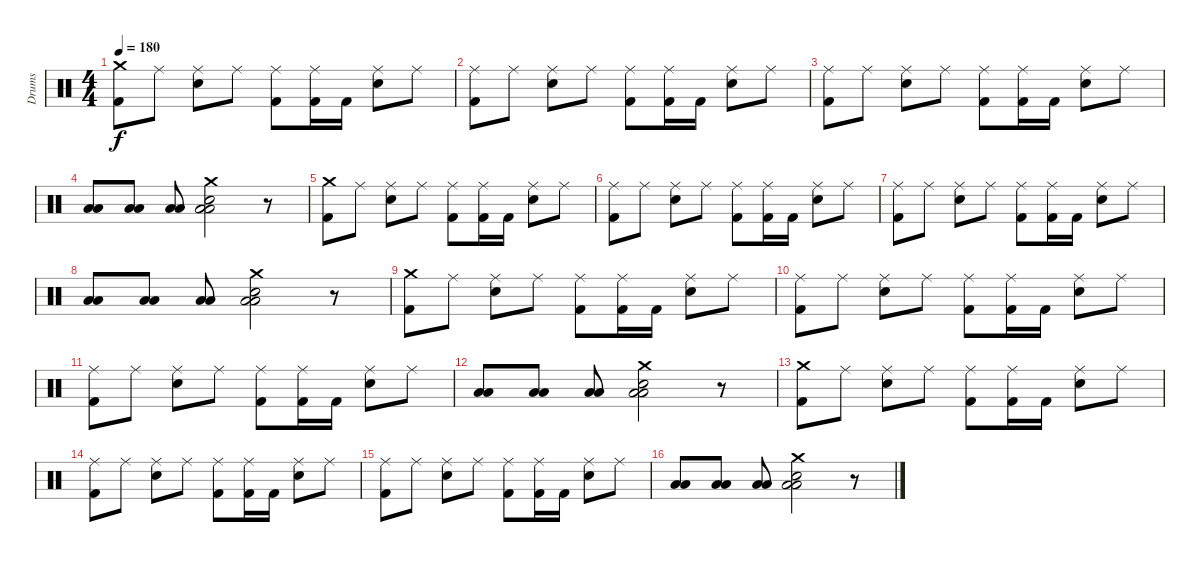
\track ("Drums" "Drums") {instrument percussion}
\staff {score}
\articulation defaults
\ts (4 4)
\tempo 180
\clef neutral
\ks c
("Crash medium (hit)" "Kick (hit) 2").8{dy f} "Ride (middle)".8 ("Ride (middle)" "Electric Snare (hit)").8 "Ride (middle)".8 ("Ride (middle)" "Kick (hit) 2").8 ("Ride (middle)" "Kick (hit) 2").16 "Kick (hit) 2".16 ("Ride (middle)" "Electric Snare (hit)").8 "Ride (middle)".8 |
("Ride (middle)" "Kick (hit) 2").8 "Ride (middle)".8 ("Ride (middle)" "Electric Snare (hit)").8 "Ride (middle)".8 ("Ride (middle)" "Kick (hit) 2").8 ("Ride (middle)" "Kick (hit) 2").16 "Kick (hit) 2".16 ("Ride (middle)" "Electric Snare (hit)").8 "Ride (middle)".8 |
("Ride (middle)" "Kick (hit) 2").8 "Ride (middle)".8 ("Ride (middle)" "Electric Snare (hit)").8 "Ride (middle)".8 ("Ride (middle)" "Kick (hit) 2").8 ("Ride (middle)" "Kick (hit) 2").16 "Kick (hit) 2".16 ("Ride (middle)" "Electric Snare (hit)").8 "Ride (middle)".8 |
("Low Tom (hit)" "Low Tom (hit)").8 ("Low Tom (hit)" "Low Tom (hit)").8 ("Low Tom (hit)" "Low Tom (hit)").8 ("Crash medium (hit)" "Electric Snare (hit)" "Low Tom (hit)" "Low Tom (hit)").2 r.8 |
("Crash medium (hit)" "Kick (hit) 2").8 "Ride (middle)".8 ("Ride (middle)" "Electric Snare (hit)").8 "Ride (middle)".8 ("Ride (middle)" "Kick (hit) 2").8 ("Ride (middle)" "Kick (hit) 2").16 "Kick (hit) 2".16 ("Ride (middle)" "Electric Snare (hit)").8 "Ride (middle)".8 |
("Ride (middle)" "Kick (hit) 2").8 "Ride (middle)".8 ("Ride (middle)" "Electric Snare (hit)").8 "Ride (middle)".8 ("Ride (middle)" "Kick (hit) 2").8 ("Ride (middle)" "Kick (hit) 2").16 "Kick (hit) 2".16 ("Ride (middle)" "Electric Snare (hit)").8 "Ride (middle)".8 |
("Ride (middle)" "Kick (hit) 2").8 "Ride (middle)".8 ("Ride (middle)" "Electric Snare (hit)").8 "Ride (middle)".8 ("Ride (middle)" "Kick (hit) 2").8 ("Ride (middle)" "Kick (hit) 2").16 "Kick (hit) 2".16 ("Ride (middle)" "Electric Snare (hit)").8 "Ride (middle)".8 |
("Low Tom (hit)" "Low Tom (hit)").8 ("Low Tom (hit)" "Low Tom (hit)").8 ("Low Tom (hit)" "Low Tom (hit)").8 ("Crash medium (hit)" "Electric Snare (hit)" "Low Tom (hit)" "Low Tom (hit)").2 r.8 |
("Crash medium (hit)" "Kick (hit) 2").8 "Ride (middle)".8 ("Ride (middle)" "Electric Snare (hit)").8 "Ride (middle)".8 ("Ride (middle)" "Kick (hit) 2").8 ("Ride (middle)" "Kick (hit) 2").16 "Kick (hit) 2".16 ("Ride (middle)" "Electric Snare (hit)").8 "Ride (middle)".8 |
("Ride (middle)" "Kick (hit) 2").8 "Ride (middle)".8 ("Ride (middle)" "Electric Snare (hit)").8 "Ride (middle)".8 ("Ride (middle)" "Kick (hit) 2").8 ("Ride (middle)" "Kick (hit) 2").16 "Kick (hit) 2".16 ("Ride (middle)" "Electric Snare (hit)").8 "Ride (middle)".8 |
("Ride (middle)" "Kick (hit) 2").8 "Ride (middle)".8 ("Ride (middle)" "Electric Snare (hit)").8 "Ride (middle)".8 ("Ride (middle)" "Kick (hit) 2").8 ("Ride (middle)" "Kick (hit) 2").16 "Kick (hit) 2".16 ("Ride (middle)" "Electric Snare (hit)").8 "Ride (middle)".8 |
("Low Tom (hit)" "Low Tom (hit)").8 ("Low Tom (hit)" "Low Tom (hit)").8 ("Low Tom (hit)" "Low Tom (hit)").8 ("Crash medium (hit)" "Electric Snare (hit)" "Low Tom (hit)" "Low Tom (hit)").2 r.8 |
("Crash medium (hit)" "Kick (hit) 2").8 "Ride (middle)".8 ("Ride (middle)" "Electric Snare (hit)").8 "Ride (middle)".8 ("Ride (middle)" "Kick (hit) 2").8 ("Ride (middle)" "Kick (hit) 2").16 "Kick (hit) 2".16 ("Ride (middle)" "Electric Snare (hit)").8 "Ride (middle)".8 |
("Ride (middle)" "Kick (hit) 2").8 "Ride (middle)".8 ("Ride (middle)" "Electric Snare (hit)").8 "Ride (middle)".8 ("Ride (middle)" "Kick (hit) 2").8 ("Ride (middle)" "Kick (hit) 2").16 "Kick (hit) 2".16 ("Ride (middle)" "Electric Snare (hit)").8 "Ride (middle)".8 |
("Ride (middle)" "Kick (hit) 2").8 "Ride (middle)".8 ("Ride (middle)" "Electric Snare (hit)").8 "Ride (middle)".8 ("Ride (middle)" "Kick (hit) 2").8 ("Ride (middle)" "Kick (hit) 2").16 "Kick (hit) 2".16 ("Ride (middle)" "Electric Snare (hit)").8 "Ride (middle)".8 |
("Low Tom (hit)" "Low Tom (hit)").8 ("Low Tom (hit)" "Low Tom (hit)").8 ("Low Tom (hit)" "Low Tom (hit)").8 ("Crash medium (hit)" "Electric Snare (hit)" "Low Tom (hit)" "Low Tom (hit)").2 r.8
